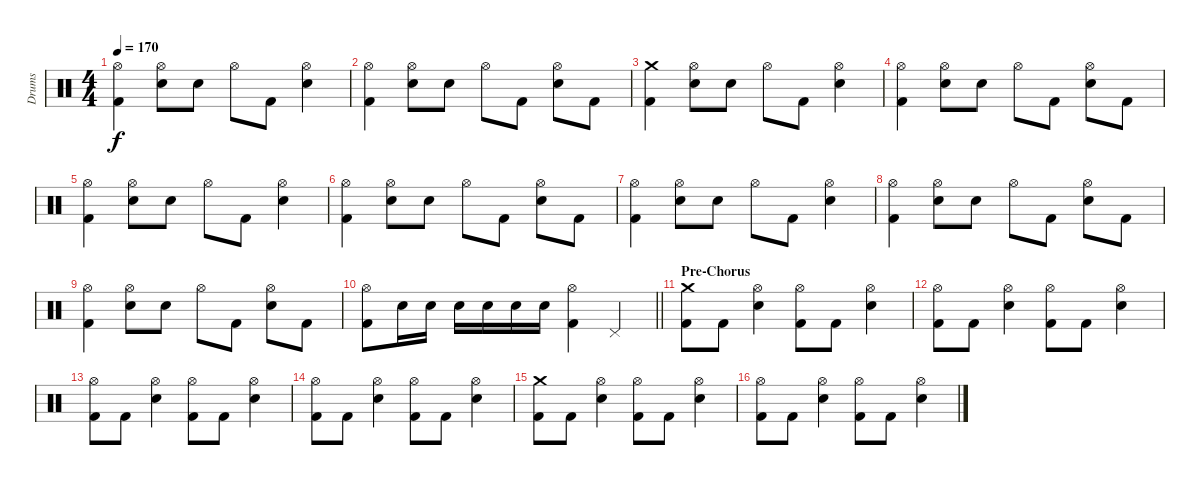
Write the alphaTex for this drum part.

\track ("Drums" "Drums") {instrument percussion}
\staff {score}
\articulation defaults
\ts (4 4)
\tempo 170
\clef neutral
\ks c
("Hi-Hat (open)" "Kick (hit) 2").4{dy f} ("Hi-Hat (open)" "Electric Snare (hit)").8 "Electric Snare (hit)".8 "Hi-Hat (open)".8 "Kick (hit) 2".8 ("Hi-Hat (open)" "Electric Snare (hit)").4 |
("Hi-Hat (open)" "Kick (hit) 2").4 ("Hi-Hat (open)" "Electric Snare (hit)").8 "Electric Snare (hit)".8 "Hi-Hat (open)".8 "Kick (hit) 2".8 ("Hi-Hat (open)" "Electric Snare (hit)").8 "Kick (hit) 2".8 |
("Crash medium (hit)" "Kick (hit) 2").4 ("Hi-Hat (open)" "Electric Snare (hit)").8 "Electric Snare (hit)".8 "Hi-Hat (open)".8 "Kick (hit) 2".8 ("Hi-Hat (open)" "Electric Snare (hit)").4 |
("Hi-Hat (open)" "Kick (hit) 2").4 ("Hi-Hat (open)" "Electric Snare (hit)").8 "Electric Snare (hit)".8 "Hi-Hat (open)".8 "Kick (hit) 2".8 ("Hi-Hat (open)" "Electric Snare (hit)").8 "Kick (hit) 2".8 |
("Hi-Hat (open)" "Kick (hit) 2").4 ("Hi-Hat (open)" "Electric Snare (hit)").8 "Electric Snare (hit)".8 "Hi-Hat (open)".8 "Kick (hit) 2".8 ("Hi-Hat (open)" "Electric Snare (hit)").4 |
("Hi-Hat (open)" "Kick (hit) 2").4 ("Hi-Hat (open)" "Electric Snare (hit)").8 "Electric Snare (hit)".8 "Hi-Hat (open)".8 "Kick (hit) 2".8 ("Hi-Hat (open)" "Electric Snare (hit)").8 "Kick (hit) 2".8 |
("Hi-Hat (open)" "Kick (hit) 2").4 ("Hi-Hat (open)" "Electric Snare (hit)").8 "Electric Snare (hit)".8 "Hi-Hat (open)".8 "Kick (hit) 2".8 ("Hi-Hat (open)" "Electric Snare (hit)").4 |
("Hi-Hat (open)" "Kick (hit) 2").4 ("Hi-Hat (open)" "Electric Snare (hit)").8 "Electric Snare (hit)".8 "Hi-Hat (open)".8 "Kick (hit) 2".8 ("Hi-Hat (open)" "Electric Snare (hit)").8 "Kick (hit) 2".8 |
("Hi-Hat (open)" "Kick (hit) 2").4 ("Hi-Hat (open)" "Electric Snare (hit)").8 "Electric Snare (hit)".8 "Hi-Hat (open)".8 "Kick (hit) 2".8 ("Hi-Hat (open)" "Electric Snare (hit)").8 "Kick (hit) 2".8 |
\barLineRight lightlight
("Hi-Hat (open)" "Kick (hit) 2").8 "Electric Snare (hit)".16 "Electric Snare (hit)".16 "Electric Snare (hit)".16 "Electric Snare (hit)".16 "Electric Snare (hit)".16 "Electric Snare (hit)".16 ("Hi-Hat (open)" "Kick (hit) 2").4 "Pedal Hi-Hat (hit)".4 |
\section ("" "Pre-Chorus")
("Crash medium (hit)" "Kick (hit) 2").8 "Kick (hit) 2".8 ("Hi-Hat (open)" "Electric Snare (hit)").4 ("Hi-Hat (open)" "Kick (hit) 2").8 "Kick (hit) 2".8 ("Hi-Hat (open)" "Electric Snare (hit)").4 |
("Hi-Hat (open)" "Kick (hit) 2").8 "Kick (hit) 2".8 ("Hi-Hat (open)" "Electric Snare (hit)").4 ("Hi-Hat (open)" "Kick (hit) 2").8 "Kick (hit) 2".8 ("Hi-Hat (open)" "Electric Snare (hit)").4 |
("Hi-Hat (open)" "Kick (hit) 2").8 "Kick (hit) 2".8 ("Hi-Hat (open)" "Electric Snare (hit)").4 ("Hi-Hat (open)" "Kick (hit) 2").8 "Kick (hit) 2".8 ("Hi-Hat (open)" "Electric Snare (hit)").4 |
("Hi-Hat (open)" "Kick (hit) 2").8 "Kick (hit) 2".8 ("Hi-Hat (open)" "Electric Snare (hit)").4 ("Hi-Hat (open)" "Kick (hit) 2").8 "Kick (hit) 2".8 ("Hi-Hat (open)" "Electric Snare (hit)").4 |
("Crash medium (hit)" "Kick (hit) 2").8 "Kick (hit) 2".8 ("Hi-Hat (open)" "Electric Snare (hit)").4 ("Hi-Hat (open)" "Kick (hit) 2").8 "Kick (hit) 2".8 ("Hi-Hat (open)" "Electric Snare (hit)").4 |
("Hi-Hat (open)" "Kick (hit) 2").8 "Kick (hit) 2".8 ("Hi-Hat (open)" "Electric Snare (hit)").4 ("Hi-Hat (open)" "Kick (hit) 2").8 "Kick (hit) 2".8 ("Hi-Hat (open)" "Electric Snare (hit)").4
